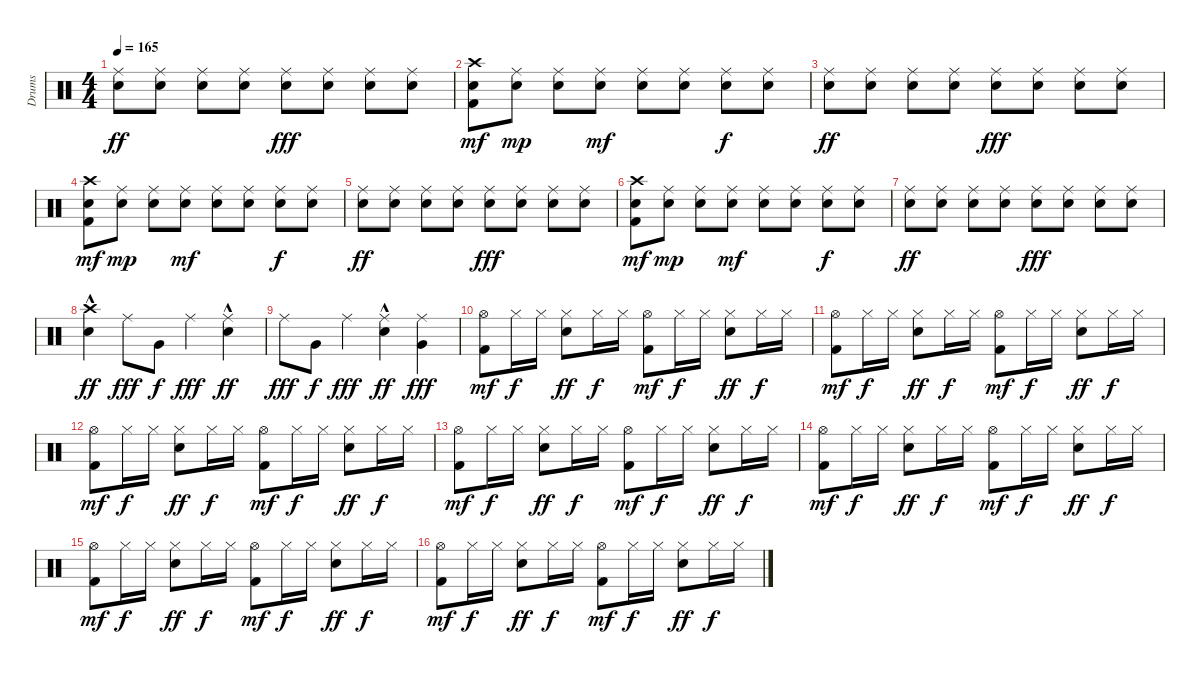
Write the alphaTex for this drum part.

\track ("Drums" "Drums") {instrument percussion}
\staff {score}
\articulation defaults
\ts (4 4)
\tempo 165
\clef neutral
\ks c
("Ride (middle)" "Electric Snare (hit)").8{dy ff} ("Ride (middle)" "Electric Snare (hit)").8 ("Ride (middle)" "Electric Snare (hit)").8 ("Ride (middle)" "Electric Snare (hit)").8 ("Ride (middle)" "Electric Snare (hit)").8{dy fff} ("Ride (middle)" "Electric Snare (hit)").8 ("Ride (middle)" "Electric Snare (hit)").8 ("Ride (middle)" "Electric Snare (hit)").8 |
("Crash high (hit)" "Electric Snare (hit)" "Kick (hit) 2").8{dy mf} ("Ride (middle)" "Electric Snare (hit)").8{dy mp} ("Ride (middle)" "Electric Snare (hit)").8 ("Ride (middle)" "Electric Snare (hit)").8{dy mf} ("Ride (middle)" "Electric Snare (hit)").8 ("Ride (middle)" "Electric Snare (hit)").8 ("Ride (middle)" "Electric Snare (hit)").8{dy f} ("Ride (middle)" "Electric Snare (hit)").8 |
("Ride (middle)" "Electric Snare (hit)").8{dy ff} ("Ride (middle)" "Electric Snare (hit)").8 ("Ride (middle)" "Electric Snare (hit)").8 ("Ride (middle)" "Electric Snare (hit)").8 ("Ride (middle)" "Electric Snare (hit)").8{dy fff} ("Ride (middle)" "Electric Snare (hit)").8 ("Ride (middle)" "Electric Snare (hit)").8 ("Ride (middle)" "Electric Snare (hit)").8 |
("Crash high (hit)" "Electric Snare (hit)" "Kick (hit) 2").8{dy mf} ("Ride (middle)" "Electric Snare (hit)").8{dy mp} ("Ride (middle)" "Electric Snare (hit)").8 ("Ride (middle)" "Electric Snare (hit)").8{dy mf} ("Ride (middle)" "Electric Snare (hit)").8 ("Ride (middle)" "Electric Snare (hit)").8 ("Ride (middle)" "Electric Snare (hit)").8{dy f} ("Ride (middle)" "Electric Snare (hit)").8 |
("Ride (middle)" "Electric Snare (hit)").8{dy ff} ("Ride (middle)" "Electric Snare (hit)").8 ("Ride (middle)" "Electric Snare (hit)").8 ("Ride (middle)" "Electric Snare (hit)").8 ("Ride (middle)" "Electric Snare (hit)").8{dy fff} ("Ride (middle)" "Electric Snare (hit)").8 ("Ride (middle)" "Electric Snare (hit)").8 ("Ride (middle)" "Electric Snare (hit)").8 |
("Crash high (hit)" "Electric Snare (hit)" "Kick (hit) 2").8{dy mf} ("Ride (middle)" "Electric Snare (hit)").8{dy mp} ("Ride (middle)" "Electric Snare (hit)").8 ("Ride (middle)" "Electric Snare (hit)").8{dy mf} ("Ride (middle)" "Electric Snare (hit)").8 ("Ride (middle)" "Electric Snare (hit)").8 ("Ride (middle)" "Electric Snare (hit)").8{dy f} ("Ride (middle)" "Electric Snare (hit)").8 |
("Ride (middle)" "Electric Snare (hit)").8{dy ff} ("Ride (middle)" "Electric Snare (hit)").8 ("Ride (middle)" "Electric Snare (hit)").8 ("Ride (middle)" "Electric Snare (hit)").8 ("Ride (middle)" "Electric Snare (hit)").8{dy fff} ("Ride (middle)" "Electric Snare (hit)").8 ("Ride (middle)" "Electric Snare (hit)").8 ("Ride (middle)" "Electric Snare (hit)").8 |
("Crash high (hit)" "Electric Snare (hit)"{hac}).4{dy ff} "Ride (middle)".8{dy fff} "Very Low Tom (hit)".8{dy f} "Ride (middle)".4{dy fff} ("Ride (middle)" "Electric Snare (hit)"{hac}).4{dy ff} |
"Ride (middle)".8{dy fff} "Very Low Tom (hit)".8{dy f} "Ride (middle)".4{dy fff} ("Ride (middle)" "Electric Snare (hit)"{hac}).4{dy ff} ("Ride (middle)" "Very Low Tom (hit)").4{dy fff} |
("Hi-Hat (open)" "Kick (hit) 2").8{dy mf} "Hi-Hat (closed)".16{dy f} "Hi-Hat (closed)".16 ("Hi-Hat (closed)" "Electric Snare (hit)").8{dy ff} "Hi-Hat (closed)".16{dy f} "Hi-Hat (closed)".16 ("Hi-Hat (open)" "Kick (hit) 2").8{dy mf} "Hi-Hat (closed)".16{dy f} "Hi-Hat (closed)".16 ("Hi-Hat (closed)" "Electric Snare (hit)").8{dy ff} "Hi-Hat (closed)".16{dy f} "Hi-Hat (closed)".16 |
("Hi-Hat (open)" "Kick (hit) 2").8{dy mf} "Hi-Hat (closed)".16{dy f} "Hi-Hat (closed)".16 ("Hi-Hat (closed)" "Electric Snare (hit)").8{dy ff} "Hi-Hat (closed)".16{dy f} "Hi-Hat (closed)".16 ("Hi-Hat (open)" "Kick (hit) 2").8{dy mf} "Hi-Hat (closed)".16{dy f} "Hi-Hat (closed)".16 ("Hi-Hat (closed)" "Electric Snare (hit)").8{dy ff} "Hi-Hat (closed)".16{dy f} "Hi-Hat (closed)".16 |
("Hi-Hat (open)" "Kick (hit) 2").8{dy mf} "Hi-Hat (closed)".16{dy f} "Hi-Hat (closed)".16 ("Hi-Hat (closed)" "Electric Snare (hit)").8{dy ff} "Hi-Hat (closed)".16{dy f} "Hi-Hat (closed)".16 ("Hi-Hat (open)" "Kick (hit) 2").8{dy mf} "Hi-Hat (closed)".16{dy f} "Hi-Hat (closed)".16 ("Hi-Hat (closed)" "Electric Snare (hit)").8{dy ff} "Hi-Hat (closed)".16{dy f} "Hi-Hat (closed)".16 |
("Hi-Hat (open)" "Kick (hit) 2").8{dy mf} "Hi-Hat (closed)".16{dy f} "Hi-Hat (closed)".16 ("Hi-Hat (closed)" "Electric Snare (hit)").8{dy ff} "Hi-Hat (closed)".16{dy f} "Hi-Hat (closed)".16 ("Hi-Hat (open)" "Kick (hit) 2").8{dy mf} "Hi-Hat (closed)".16{dy f} "Hi-Hat (closed)".16 ("Hi-Hat (closed)" "Electric Snare (hit)").8{dy ff} "Hi-Hat (closed)".16{dy f} "Hi-Hat (closed)".16 |
("Hi-Hat (open)" "Kick (hit) 2").8{dy mf} "Hi-Hat (closed)".16{dy f} "Hi-Hat (closed)".16 ("Hi-Hat (closed)" "Electric Snare (hit)").8{dy ff} "Hi-Hat (closed)".16{dy f} "Hi-Hat (closed)".16 ("Hi-Hat (open)" "Kick (hit) 2").8{dy mf} "Hi-Hat (closed)".16{dy f} "Hi-Hat (closed)".16 ("Hi-Hat (closed)" "Electric Snare (hit)").8{dy ff} "Hi-Hat (closed)".16{dy f} "Hi-Hat (closed)".16 |
("Hi-Hat (open)" "Kick (hit) 2").8{dy mf} "Hi-Hat (closed)".16{dy f} "Hi-Hat (closed)".16 ("Hi-Hat (closed)" "Electric Snare (hit)").8{dy ff} "Hi-Hat (closed)".16{dy f} "Hi-Hat (closed)".16 ("Hi-Hat (open)" "Kick (hit) 2").8{dy mf} "Hi-Hat (closed)".16{dy f} "Hi-Hat (closed)".16 ("Hi-Hat (closed)" "Electric Snare (hit)").8{dy ff} "Hi-Hat (closed)".16{dy f} "Hi-Hat (closed)".16 |
("Hi-Hat (open)" "Kick (hit) 2").8{dy mf} "Hi-Hat (closed)".16{dy f} "Hi-Hat (closed)".16 ("Hi-Hat (closed)" "Electric Snare (hit)").8{dy ff} "Hi-Hat (closed)".16{dy f} "Hi-Hat (closed)".16 ("Hi-Hat (open)" "Kick (hit) 2").8{dy mf} "Hi-Hat (closed)".16{dy f} "Hi-Hat (closed)".16 ("Hi-Hat (closed)" "Electric Snare (hit)").8{dy ff} "Hi-Hat (closed)".16{dy f} "Hi-Hat (closed)".16
